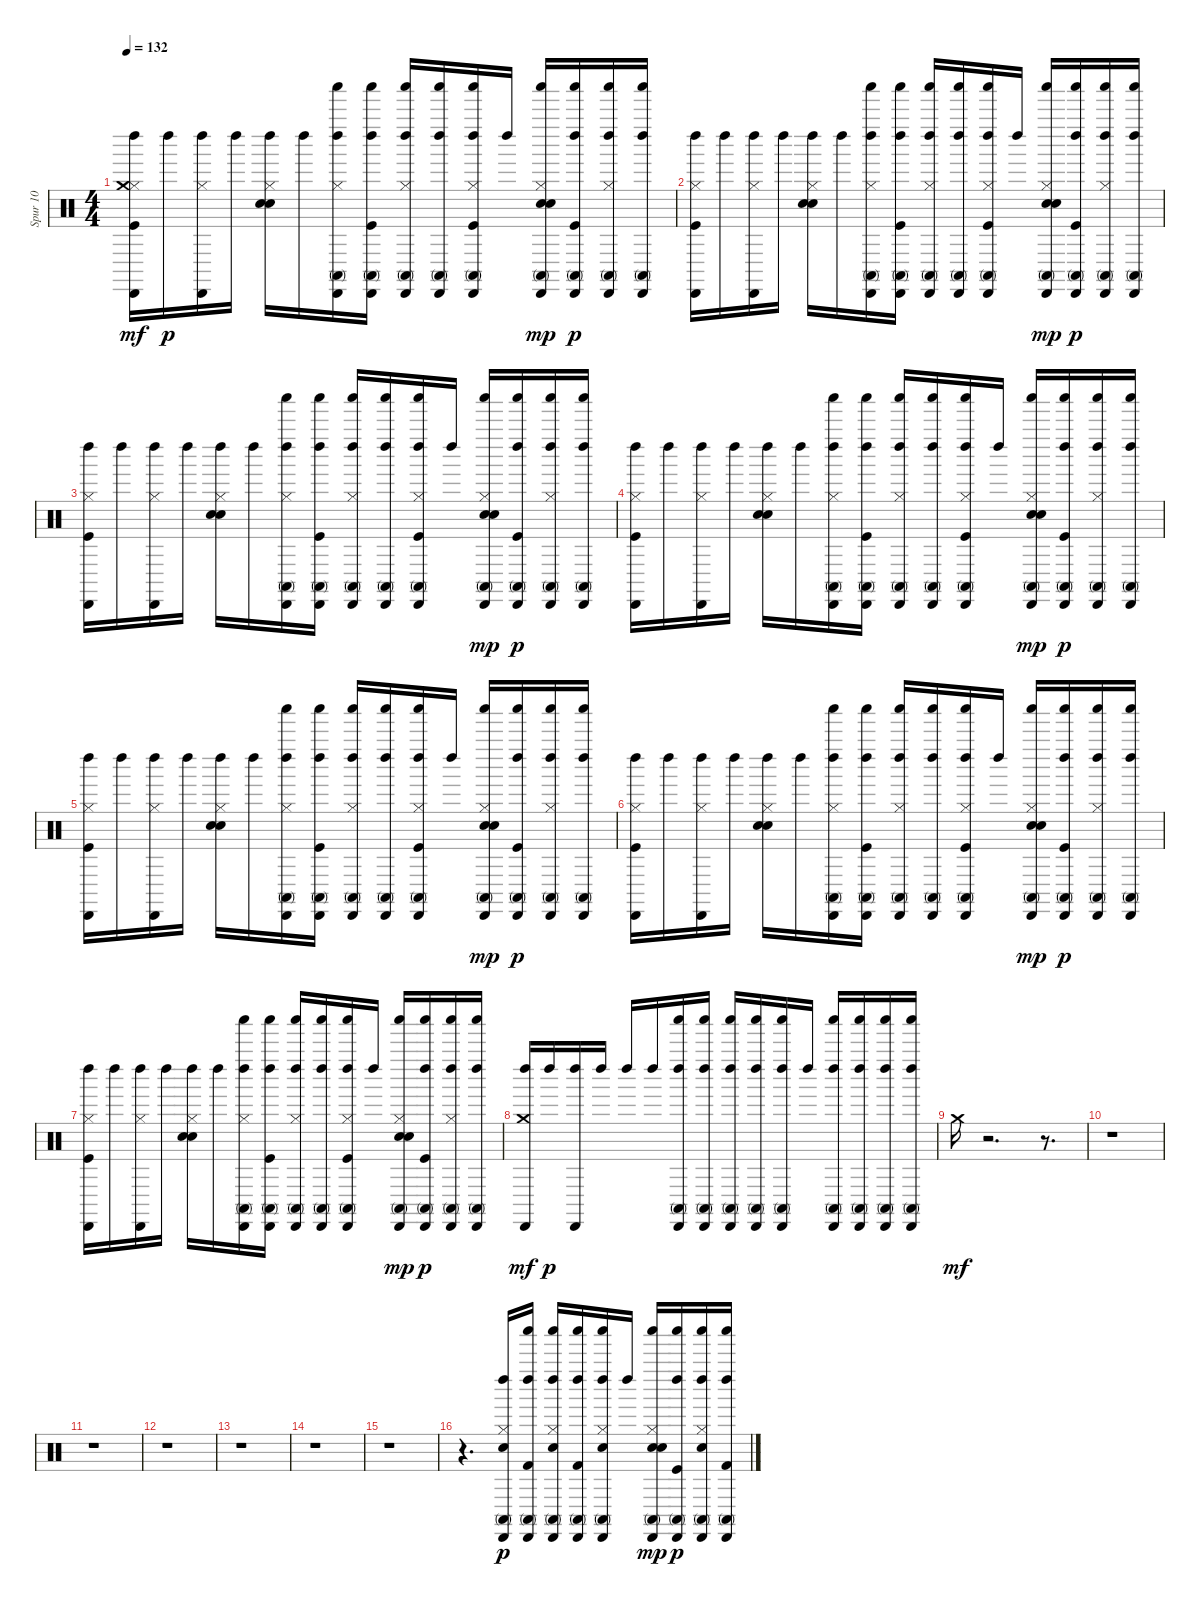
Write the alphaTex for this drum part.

\track ("Spur 10" "Spur 10") {instrument percussion}
\staff {score}
\articulation defaults
\ts (4 4)
\tempo 132
\clef neutral
\ks c
("Kick (hit)" "Hi-Hat (closed)" "Cabasa (hit)" "Left Maraca (hit)" "Crash medium (hit)").16{dy mf} "Left Maraca (hit)".16{dy p} ("Hi-Hat (closed)" "Cabasa (hit)" "Left Maraca (hit)").16 "Left Maraca (hit)".16 ("Hi-Hat (closed)" "Snare (hit) 2" "Hand Clap (hit)" "Left Maraca (hit)").16 "Left Maraca (hit)".16 ("Shaker (hit)" "Hi-Hat (closed)" "Cabasa (hit)" "Conga high (mute)" "Left Maraca (hit)").16 ("Shaker (hit)" "Kick (hit)" "Cabasa (hit)" "Conga high (mute)" "Left Maraca (hit)").16 ("Shaker (hit)" "Hi-Hat (closed)" "Cabasa (hit)" "Conga high (mute)" "Left Maraca (hit)").16 ("Shaker (hit)" "Cabasa (hit)" "Conga high (mute)" "Left Maraca (hit)").16 ("Shaker (hit)" "Kick (hit)" "Hi-Hat (closed)" "Cabasa (hit)" "Conga high (mute)" "Left Maraca (hit)").16 "Left Maraca (hit)".16 ("Shaker (hit)" "Hi-Hat (closed)" "Snare (hit) 2" "Cabasa (hit)" "Conga high (mute)" "Hand Clap (hit)").16{dy mp} ("Shaker (hit)" "Kick (hit)" "Cabasa (hit)" "Conga high (mute)" "Left Maraca (hit)").16{dy p} ("Shaker (hit)" "Hi-Hat (closed)" "Cabasa (hit)" "Conga high (mute)" "Left Maraca (hit)").16 ("Shaker (hit)" "Cabasa (hit)" "Conga high (mute)" "Left Maraca (hit)").16 |
("Kick (hit)" "Hi-Hat (closed)" "Cabasa (hit)" "Left Maraca (hit)").16 "Left Maraca (hit)".16 ("Hi-Hat (closed)" "Cabasa (hit)" "Left Maraca (hit)").16 "Left Maraca (hit)".16 ("Hi-Hat (closed)" "Snare (hit) 2" "Hand Clap (hit)" "Left Maraca (hit)").16 "Left Maraca (hit)".16 ("Shaker (hit)" "Hi-Hat (closed)" "Conga high (mute)" "Cabasa (hit)" "Left Maraca (hit)").16 ("Shaker (hit)" "Kick (hit)" "Conga high (mute)" "Cabasa (hit)" "Left Maraca (hit)").16 ("Shaker (hit)" "Hi-Hat (closed)" "Conga high (mute)" "Cabasa (hit)" "Left Maraca (hit)").16 ("Shaker (hit)" "Conga high (mute)" "Cabasa (hit)" "Left Maraca (hit)").16 ("Shaker (hit)" "Kick (hit)" "Hi-Hat (closed)" "Conga high (mute)" "Cabasa (hit)" "Left Maraca (hit)").16 "Left Maraca (hit)".16 ("Shaker (hit)" "Hi-Hat (closed)" "Snare (hit) 2" "Conga high (mute)" "Cabasa (hit)" "Hand Clap (hit)").16{dy mp} ("Shaker (hit)" "Kick (hit)" "Conga high (mute)" "Cabasa (hit)" "Left Maraca (hit)").16{dy p} ("Shaker (hit)" "Hi-Hat (closed)" "Conga high (mute)" "Cabasa (hit)" "Left Maraca (hit)").16 ("Shaker (hit)" "Conga high (mute)" "Cabasa (hit)" "Left Maraca (hit)").16 |
("Kick (hit)" "Hi-Hat (closed)" "Cabasa (hit)" "Left Maraca (hit)").16 "Left Maraca (hit)".16 ("Hi-Hat (closed)" "Cabasa (hit)" "Left Maraca (hit)").16 "Left Maraca (hit)".16 ("Hi-Hat (closed)" "Snare (hit) 2" "Hand Clap (hit)" "Left Maraca (hit)").16 "Left Maraca (hit)".16 ("Shaker (hit)" "Hi-Hat (closed)" "Conga high (mute)" "Cabasa (hit)" "Left Maraca (hit)").16 ("Shaker (hit)" "Kick (hit)" "Conga high (mute)" "Cabasa (hit)" "Left Maraca (hit)").16 ("Shaker (hit)" "Hi-Hat (closed)" "Conga high (mute)" "Cabasa (hit)" "Left Maraca (hit)").16 ("Shaker (hit)" "Conga high (mute)" "Cabasa (hit)" "Left Maraca (hit)").16 ("Shaker (hit)" "Kick (hit)" "Hi-Hat (closed)" "Conga high (mute)" "Cabasa (hit)" "Left Maraca (hit)").16 "Left Maraca (hit)".16 ("Shaker (hit)" "Hi-Hat (closed)" "Snare (hit) 2" "Conga high (mute)" "Cabasa (hit)" "Hand Clap (hit)").16{dy mp} ("Shaker (hit)" "Kick (hit)" "Conga high (mute)" "Cabasa (hit)" "Left Maraca (hit)").16{dy p} ("Shaker (hit)" "Hi-Hat (closed)" "Conga high (mute)" "Cabasa (hit)" "Left Maraca (hit)").16 ("Shaker (hit)" "Conga high (mute)" "Cabasa (hit)" "Left Maraca (hit)").16 |
("Kick (hit)" "Hi-Hat (closed)" "Cabasa (hit)" "Left Maraca (hit)").16 "Left Maraca (hit)".16 ("Hi-Hat (closed)" "Cabasa (hit)" "Left Maraca (hit)").16 "Left Maraca (hit)".16 ("Hi-Hat (closed)" "Snare (hit) 2" "Hand Clap (hit)" "Left Maraca (hit)").16 "Left Maraca (hit)".16 ("Shaker (hit)" "Hi-Hat (closed)" "Cabasa (hit)" "Conga high (mute)" "Left Maraca (hit)").16 ("Shaker (hit)" "Kick (hit)" "Cabasa (hit)" "Conga high (mute)" "Left Maraca (hit)").16 ("Shaker (hit)" "Hi-Hat (closed)" "Cabasa (hit)" "Conga high (mute)" "Left Maraca (hit)").16 ("Shaker (hit)" "Cabasa (hit)" "Conga high (mute)" "Left Maraca (hit)").16 ("Shaker (hit)" "Kick (hit)" "Hi-Hat (closed)" "Cabasa (hit)" "Conga high (mute)" "Left Maraca (hit)").16 "Left Maraca (hit)".16 ("Shaker (hit)" "Hi-Hat (closed)" "Snare (hit) 2" "Cabasa (hit)" "Conga high (mute)" "Hand Clap (hit)").16{dy mp} ("Shaker (hit)" "Kick (hit)" "Cabasa (hit)" "Conga high (mute)" "Left Maraca (hit)").16{dy p} ("Shaker (hit)" "Hi-Hat (closed)" "Cabasa (hit)" "Conga high (mute)" "Left Maraca (hit)").16 ("Shaker (hit)" "Cabasa (hit)" "Conga high (mute)" "Left Maraca (hit)").16 |
("Kick (hit)" "Hi-Hat (closed)" "Left Maraca (hit)" "Cabasa (hit)").16 "Left Maraca (hit)".16 ("Hi-Hat (closed)" "Left Maraca (hit)" "Cabasa (hit)").16 "Left Maraca (hit)".16 ("Hi-Hat (closed)" "Snare (hit) 2" "Hand Clap (hit)" "Left Maraca (hit)").16 "Left Maraca (hit)".16 ("Shaker (hit)" "Hi-Hat (closed)" "Conga high (mute)" "Cabasa (hit)" "Left Maraca (hit)").16 ("Shaker (hit)" "Kick (hit)" "Conga high (mute)" "Cabasa (hit)" "Left Maraca (hit)").16 ("Shaker (hit)" "Hi-Hat (closed)" "Conga high (mute)" "Cabasa (hit)" "Left Maraca (hit)").16 ("Shaker (hit)" "Conga high (mute)" "Cabasa (hit)" "Left Maraca (hit)").16 ("Shaker (hit)" "Kick (hit)" "Hi-Hat (closed)" "Conga high (mute)" "Cabasa (hit)" "Left Maraca (hit)").16 "Left Maraca (hit)".16 ("Shaker (hit)" "Hi-Hat (closed)" "Snare (hit) 2" "Conga high (mute)" "Cabasa (hit)" "Hand Clap (hit)").16{dy mp} ("Shaker (hit)" "Kick (hit)" "Conga high (mute)" "Cabasa (hit)" "Left Maraca (hit)").16{dy p} ("Shaker (hit)" "Hi-Hat (closed)" "Conga high (mute)" "Cabasa (hit)" "Left Maraca (hit)").16 ("Shaker (hit)" "Conga high (mute)" "Cabasa (hit)" "Left Maraca (hit)").16 |
("Kick (hit)" "Hi-Hat (closed)" "Cabasa (hit)" "Left Maraca (hit)").16 "Left Maraca (hit)".16 ("Hi-Hat (closed)" "Cabasa (hit)" "Left Maraca (hit)").16 "Left Maraca (hit)".16 ("Hi-Hat (closed)" "Snare (hit) 2" "Hand Clap (hit)" "Left Maraca (hit)").16 "Left Maraca (hit)".16 ("Shaker (hit)" "Hi-Hat (closed)" "Cabasa (hit)" "Conga high (mute)" "Left Maraca (hit)").16 ("Shaker (hit)" "Kick (hit)" "Cabasa (hit)" "Conga high (mute)" "Left Maraca (hit)").16 ("Shaker (hit)" "Hi-Hat (closed)" "Cabasa (hit)" "Conga high (mute)" "Left Maraca (hit)").16 ("Shaker (hit)" "Cabasa (hit)" "Conga high (mute)" "Left Maraca (hit)").16 ("Shaker (hit)" "Kick (hit)" "Hi-Hat (closed)" "Cabasa (hit)" "Conga high (mute)" "Left Maraca (hit)").16 "Left Maraca (hit)".16 ("Shaker (hit)" "Hi-Hat (closed)" "Snare (hit) 2" "Cabasa (hit)" "Conga high (mute)" "Hand Clap (hit)").16{dy mp} ("Shaker (hit)" "Kick (hit)" "Cabasa (hit)" "Conga high (mute)" "Left Maraca (hit)").16{dy p} ("Shaker (hit)" "Hi-Hat (closed)" "Cabasa (hit)" "Conga high (mute)" "Left Maraca (hit)").16 ("Shaker (hit)" "Cabasa (hit)" "Conga high (mute)" "Left Maraca (hit)").16 |
("Kick (hit)" "Hi-Hat (closed)" "Cabasa (hit)" "Left Maraca (hit)").16 "Left Maraca (hit)".16 ("Hi-Hat (closed)" "Cabasa (hit)" "Left Maraca (hit)").16 "Left Maraca (hit)".16 ("Hi-Hat (closed)" "Snare (hit) 2" "Hand Clap (hit)" "Left Maraca (hit)").16 "Left Maraca (hit)".16 ("Shaker (hit)" "Hi-Hat (closed)" "Conga high (mute)" "Cabasa (hit)" "Left Maraca (hit)").16 ("Shaker (hit)" "Kick (hit)" "Conga high (mute)" "Cabasa (hit)" "Left Maraca (hit)").16 ("Shaker (hit)" "Hi-Hat (closed)" "Conga high (mute)" "Cabasa (hit)" "Left Maraca (hit)").16 ("Shaker (hit)" "Conga high (mute)" "Cabasa (hit)" "Left Maraca (hit)").16 ("Shaker (hit)" "Kick (hit)" "Hi-Hat (closed)" "Conga high (mute)" "Cabasa (hit)" "Left Maraca (hit)").16 "Left Maraca (hit)".16 ("Shaker (hit)" "Hi-Hat (closed)" "Snare (hit) 2" "Conga high (mute)" "Cabasa (hit)" "Hand Clap (hit)").16{dy mp} ("Shaker (hit)" "Kick (hit)" "Conga high (mute)" "Cabasa (hit)" "Left Maraca (hit)").16{dy p} ("Shaker (hit)" "Hi-Hat (closed)" "Conga high (mute)" "Cabasa (hit)" "Left Maraca (hit)").16 ("Shaker (hit)" "Conga high (mute)" "Cabasa (hit)" "Left Maraca (hit)").16 |
("Cabasa (hit)" "Left Maraca (hit)" "Crash medium (hit)").16{dy mf} "Left Maraca (hit)".16{dy p} ("Cabasa (hit)" "Left Maraca (hit)").16 "Left Maraca (hit)".16 "Left Maraca (hit)".16 "Left Maraca (hit)".16 ("Shaker (hit)" "Conga high (mute)" "Cabasa (hit)" "Left Maraca (hit)").16 ("Shaker (hit)" "Conga high (mute)" "Cabasa (hit)" "Left Maraca (hit)").16 ("Shaker (hit)" "Conga high (mute)" "Cabasa (hit)" "Left Maraca (hit)").16 ("Shaker (hit)" "Conga high (mute)" "Cabasa (hit)" "Left Maraca (hit)").16 ("Shaker (hit)" "Conga high (mute)" "Cabasa (hit)" "Left Maraca (hit)").16 "Left Maraca (hit)".16 ("Shaker (hit)" "Conga high (mute)" "Cabasa (hit)" "Left Maraca (hit)").16 ("Shaker (hit)" "Conga high (mute)" "Cabasa (hit)" "Left Maraca (hit)").16 ("Shaker (hit)" "Conga high (mute)" "Cabasa (hit)" "Left Maraca (hit)").16 ("Shaker (hit)" "Conga high (mute)" "Cabasa (hit)" "Left Maraca (hit)").16 |
"Crash medium (hit)".16{dy mf} r.2{d} r.8{d} |
r.1 |
r.1 |
r.1 |
r.1 |
r.1 |
r.1 |
r.4{d} ("Cabasa (hit)" "Hi-Hat (closed)" "Electric Snare (hit)" "Conga high (mute)" "Left Maraca (hit)").16{dy p} ("Shaker (hit)" "Cabasa (hit)" "Kick (hit) 2" "Conga high (mute)" "Left Maraca (hit)").16 ("Shaker (hit)" "Cabasa (hit)" "Hi-Hat (closed)" "Electric Snare (hit)" "Conga high (mute)" "Left Maraca (hit)").16 ("Shaker (hit)" "Cabasa (hit)" "Kick (hit) 2" "Conga high (mute)" "Left Maraca (hit)").16 ("Shaker (hit)" "Cabasa (hit)" "Electric Snare (hit)" "Hi-Hat (closed)" "Conga high (mute)" "Left Maraca (hit)").16 "Left Maraca (hit)".16 ("Shaker (hit)" "Cabasa (hit)" "Hi-Hat (closed)" "Snare (hit) 2" "Conga high (mute)" "Hand Clap (hit)").16{dy mp} ("Shaker (hit)" "Cabasa (hit)" "Kick (hit)" "Conga high (mute)" "Left Maraca (hit)").16{dy p} ("Shaker (hit)" "Cabasa (hit)" "Hi-Hat (closed)" "Electric Snare (hit)" "Conga high (mute)" "Left Maraca (hit)").16 ("Shaker (hit)" "Cabasa (hit)" "Kick (hit) 2" "Conga high (mute)" "Left Maraca (hit)").16
